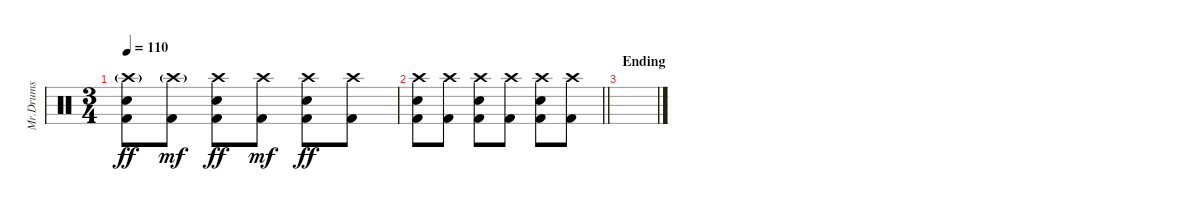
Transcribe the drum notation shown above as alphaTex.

\track ("Mr.Drums" "Mr.Drums") {instrument percussion}
\staff {score}
\articulation defaults
\ts (3 4)
\tempo 110
\clef neutral
\ks c
("Crash high (hit)"{g} "Electric Snare (hit)" "Kick (hit) 2").8{dy ff} ("Crash high (hit)"{g} "Kick (hit) 2").8{dy mf} ("Crash high (hit)" "Electric Snare (hit)" "Kick (hit) 2").8{dy ff} ("Crash high (hit)" "Kick (hit) 2").8{dy mf} ("Crash high (hit)" "Electric Snare (hit)" "Kick (hit) 2").8{dy ff} ("Crash high (hit)" "Kick (hit) 2").8 |
\barLineRight lightlight
("Crash high (hit)" "Electric Snare (hit)" "Kick (hit) 2").8 ("Crash high (hit)" "Kick (hit) 2").8 ("Crash high (hit)" "Electric Snare (hit)" "Kick (hit) 2").8 ("Crash high (hit)" "Kick (hit) 2").8 ("Crash high (hit)" "Electric Snare (hit)" "Kick (hit) 2").8 ("Crash high (hit)" "Kick (hit) 2").8 |
\section ("" "Ending")
